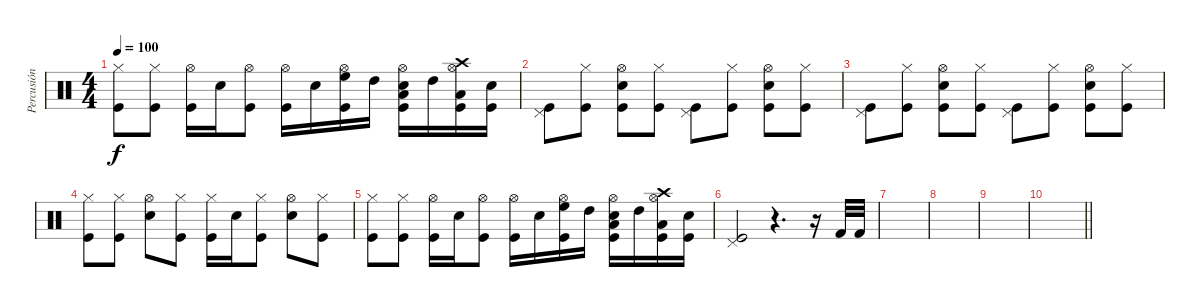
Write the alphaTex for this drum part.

\track ("Percusión" "Percusión") {instrument percussion}
\staff {score}
\articulation defaults
\ts (4 4)
\tempo 100
\clef neutral
\ks c
("Kick (hit)" "Hi-Hat (closed)").8{dy f} ("Kick (hit)" "Hi-Hat (closed)").8 ("Kick (hit)" "Hi-Hat (open)").16 "Snare (hit) 2".16 ("Kick (hit)" "Hi-Hat (open)").8 ("Kick (hit)" "Hi-Hat (open)").16 "Snare (hit) 2".16 ("High Floor Tom (hit)" "Kick (hit)" "Hi-Hat (open)").16 "High Tom (hit)".16 ("Snare (hit) 2" "Low Tom (hit)" "Kick (hit)" "Hi-Hat (open)").16 "High Tom (hit)".16 ("Crash high (hit)" "Low Tom (hit)" "Kick (hit)" "Hi-Hat (open)").16 ("Snare (hit) 2" "Kick (hit)").16 |
("Kick (hit)" "Pedal Hi-Hat (hit)").8 ("Kick (hit)" "Hi-Hat (closed)").8 ("Snare (hit) 2" "Kick (hit)" "Hi-Hat (open)").8 ("Kick (hit)" "Hi-Hat (closed)").8 ("Kick (hit)" "Pedal Hi-Hat (hit)").8 ("Kick (hit)" "Hi-Hat (closed)").8 ("Snare (hit) 2" "Kick (hit)" "Hi-Hat (open)").8 ("Kick (hit)" "Hi-Hat (closed)").8 |
("Kick (hit)" "Pedal Hi-Hat (hit)").8 ("Kick (hit)" "Hi-Hat (closed)").8 ("Snare (hit) 2" "Kick (hit)" "Hi-Hat (open)").8 ("Kick (hit)" "Hi-Hat (closed)").8 ("Kick (hit)" "Pedal Hi-Hat (hit)").8 ("Kick (hit)" "Hi-Hat (closed)").8 ("Snare (hit) 2" "Kick (hit)" "Hi-Hat (open)").8 ("Kick (hit)" "Hi-Hat (closed)").8 |
("Kick (hit)" "Hi-Hat (closed)").8 ("Kick (hit)" "Hi-Hat (closed)").8 ("Snare (hit) 2" "Hi-Hat (open)").8 ("Kick (hit)" "Hi-Hat (closed)").8 ("Kick (hit)" "Hi-Hat (closed)").16 "Snare (hit) 2".16 ("Kick (hit)" "Hi-Hat (closed)").8 ("Snare (hit) 2" "Hi-Hat (open)").8 ("Kick (hit)" "Hi-Hat (closed)").8 |
("Kick (hit)" "Hi-Hat (closed)").8 ("Kick (hit)" "Hi-Hat (closed)").8 ("Kick (hit)" "Hi-Hat (open)").16 "Snare (hit) 2".16 ("Kick (hit)" "Hi-Hat (open)").8 ("Kick (hit)" "Hi-Hat (open)").16 "Snare (hit) 2".16 ("High Floor Tom (hit)" "Kick (hit)" "Hi-Hat (open)").16 "High Tom (hit)".16 ("Snare (hit) 2" "Low Tom (hit)" "Kick (hit)" "Hi-Hat (open)").16 "High Tom (hit)".16 ("Crash high (hit)" "Low Tom (hit)" "Kick (hit)" "Hi-Hat (open)").16 ("Snare (hit) 2" "Kick (hit)").16 |
("Kick (hit)" "Pedal Hi-Hat (hit)").2 r.4{d} r.16 "Kick (hit) 2".32 "Kick (hit) 2".32 |
|
|
|
\barLineRight lightlight
